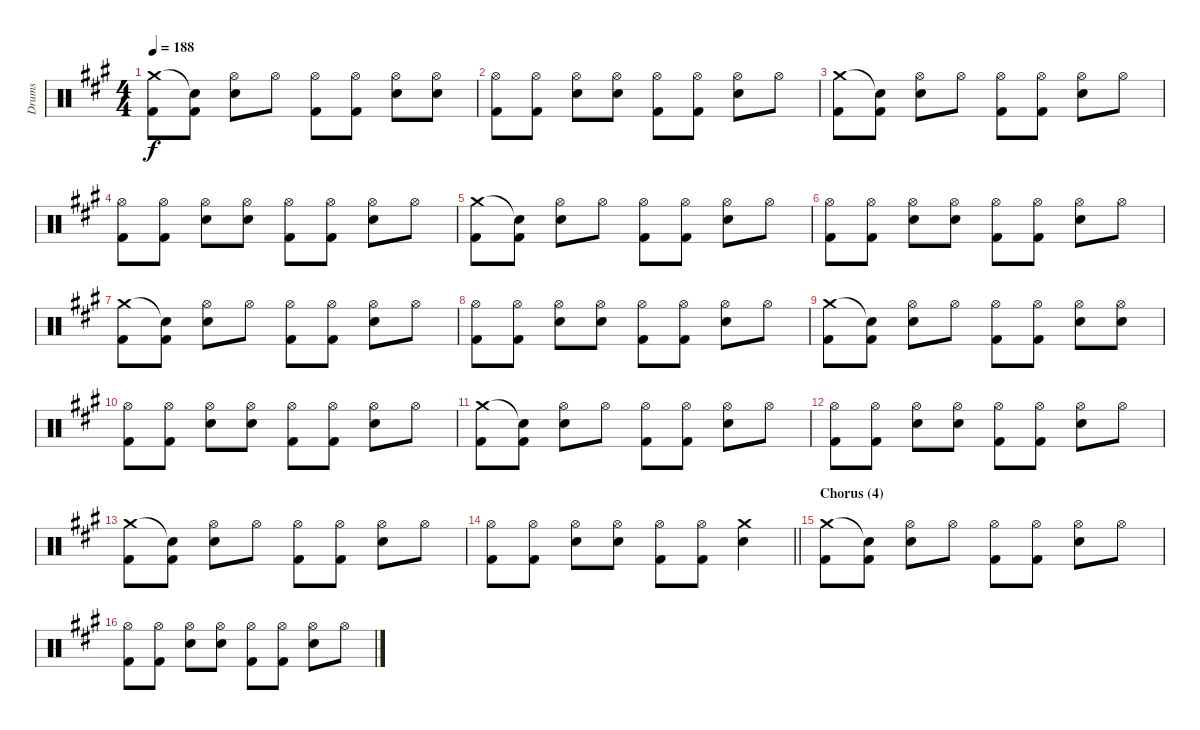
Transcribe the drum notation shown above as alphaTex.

\track ("Drums" "Drums") {instrument percussion}
\staff {score}
\articulation defaults
\ts (4 4)
\tempo 188
\clef neutral
\ks a
("Crash medium (hit)" "Kick (hit) 2").8{dy f} ("Snare (hit)"{t} "Kick (hit) 2").8 ("Hi-Hat (open)" "Electric Snare (hit)").8 "Hi-Hat (open)".8 ("Hi-Hat (open)" "Kick (hit) 2").8 ("Hi-Hat (open)" "Kick (hit) 2").8 ("Hi-Hat (open)" "Electric Snare (hit)").8 ("Hi-Hat (open)" "Electric Snare (hit)").8 |
("Hi-Hat (open)" "Kick (hit) 2").8 ("Hi-Hat (open)" "Kick (hit) 2").8 ("Hi-Hat (open)" "Electric Snare (hit)").8 ("Hi-Hat (open)" "Electric Snare (hit)").8 ("Hi-Hat (open)" "Kick (hit) 2").8 ("Hi-Hat (open)" "Kick (hit) 2").8 ("Hi-Hat (open)" "Electric Snare (hit)").8 "Hi-Hat (open)".8 |
("Crash medium (hit)" "Kick (hit) 2").8 ("Snare (hit)"{t} "Kick (hit) 2").8 ("Hi-Hat (open)" "Electric Snare (hit)").8 "Hi-Hat (open)".8 ("Hi-Hat (open)" "Kick (hit) 2").8 ("Hi-Hat (open)" "Kick (hit) 2").8 ("Hi-Hat (open)" "Electric Snare (hit)").8 "Hi-Hat (open)".8 |
("Hi-Hat (open)" "Kick (hit) 2").8 ("Hi-Hat (open)" "Kick (hit) 2").8 ("Hi-Hat (open)" "Electric Snare (hit)").8 ("Hi-Hat (open)" "Electric Snare (hit)").8 ("Hi-Hat (open)" "Kick (hit) 2").8 ("Hi-Hat (open)" "Kick (hit) 2").8 ("Hi-Hat (open)" "Electric Snare (hit)").8 "Hi-Hat (open)".8 |
("Crash medium (hit)" "Kick (hit) 2").8 ("Snare (hit)"{t} "Kick (hit) 2").8 ("Hi-Hat (open)" "Electric Snare (hit)").8 "Hi-Hat (open)".8 ("Hi-Hat (open)" "Kick (hit) 2").8 ("Hi-Hat (open)" "Kick (hit) 2").8 ("Hi-Hat (open)" "Electric Snare (hit)").8 "Hi-Hat (open)".8 |
("Hi-Hat (open)" "Kick (hit) 2").8 ("Hi-Hat (open)" "Kick (hit) 2").8 ("Hi-Hat (open)" "Electric Snare (hit)").8 ("Hi-Hat (open)" "Electric Snare (hit)").8 ("Hi-Hat (open)" "Kick (hit) 2").8 ("Hi-Hat (open)" "Kick (hit) 2").8 ("Hi-Hat (open)" "Electric Snare (hit)").8 "Hi-Hat (open)".8 |
("Crash medium (hit)" "Kick (hit) 2").8 ("Snare (hit)"{t} "Kick (hit) 2").8 ("Hi-Hat (open)" "Electric Snare (hit)").8 "Hi-Hat (open)".8 ("Hi-Hat (open)" "Kick (hit) 2").8 ("Hi-Hat (open)" "Kick (hit) 2").8 ("Hi-Hat (open)" "Electric Snare (hit)").8 "Hi-Hat (open)".8 |
("Hi-Hat (open)" "Kick (hit) 2").8 ("Hi-Hat (open)" "Kick (hit) 2").8 ("Hi-Hat (open)" "Electric Snare (hit)").8 ("Hi-Hat (open)" "Electric Snare (hit)").8 ("Hi-Hat (open)" "Kick (hit) 2").8 ("Hi-Hat (open)" "Kick (hit) 2").8 ("Hi-Hat (open)" "Electric Snare (hit)").8 "Hi-Hat (open)".8 |
("Crash medium (hit)" "Kick (hit) 2").8 ("Snare (hit)"{t} "Kick (hit) 2").8 ("Hi-Hat (open)" "Electric Snare (hit)").8 "Hi-Hat (open)".8 ("Hi-Hat (open)" "Kick (hit) 2").8 ("Hi-Hat (open)" "Kick (hit) 2").8 ("Hi-Hat (open)" "Electric Snare (hit)").8 ("Hi-Hat (open)" "Electric Snare (hit)").8 |
("Hi-Hat (open)" "Kick (hit) 2").8 ("Hi-Hat (open)" "Kick (hit) 2").8 ("Hi-Hat (open)" "Electric Snare (hit)").8 ("Hi-Hat (open)" "Electric Snare (hit)").8 ("Hi-Hat (open)" "Kick (hit) 2").8 ("Hi-Hat (open)" "Kick (hit) 2").8 ("Hi-Hat (open)" "Electric Snare (hit)").8 "Hi-Hat (open)".8 |
("Crash medium (hit)" "Kick (hit) 2").8 ("Snare (hit)"{t} "Kick (hit) 2").8 ("Hi-Hat (open)" "Electric Snare (hit)").8 "Hi-Hat (open)".8 ("Hi-Hat (open)" "Kick (hit) 2").8 ("Hi-Hat (open)" "Kick (hit) 2").8 ("Hi-Hat (open)" "Electric Snare (hit)").8 "Hi-Hat (open)".8 |
("Hi-Hat (open)" "Kick (hit) 2").8 ("Hi-Hat (open)" "Kick (hit) 2").8 ("Hi-Hat (open)" "Electric Snare (hit)").8 ("Hi-Hat (open)" "Electric Snare (hit)").8 ("Hi-Hat (open)" "Kick (hit) 2").8 ("Hi-Hat (open)" "Kick (hit) 2").8 ("Hi-Hat (open)" "Electric Snare (hit)").8 "Hi-Hat (open)".8 |
("Crash medium (hit)" "Kick (hit) 2").8 ("Snare (hit)"{t} "Kick (hit) 2").8 ("Hi-Hat (open)" "Electric Snare (hit)").8 "Hi-Hat (open)".8 ("Hi-Hat (open)" "Kick (hit) 2").8 ("Hi-Hat (open)" "Kick (hit) 2").8 ("Hi-Hat (open)" "Electric Snare (hit)").8 "Hi-Hat (open)".8 |
\barLineRight lightlight
("Hi-Hat (open)" "Kick (hit) 2").8 ("Hi-Hat (open)" "Kick (hit) 2").8 ("Hi-Hat (open)" "Electric Snare (hit)").8 ("Hi-Hat (open)" "Electric Snare (hit)").8 ("Hi-Hat (open)" "Kick (hit) 2").8 ("Hi-Hat (open)" "Kick (hit) 2").8 ("Crash medium (hit)" "Electric Snare (hit)").4 |
\section ("" "Chorus (4)")
("Crash medium (hit)" "Kick (hit) 2").8 ("Snare (hit)"{t} "Kick (hit) 2").8 ("Hi-Hat (open)" "Electric Snare (hit)").8 "Hi-Hat (open)".8 ("Hi-Hat (open)" "Kick (hit) 2").8 ("Hi-Hat (open)" "Kick (hit) 2").8 ("Hi-Hat (open)" "Electric Snare (hit)").8 "Hi-Hat (open)".8 |
("Hi-Hat (open)" "Kick (hit) 2").8 ("Hi-Hat (open)" "Kick (hit) 2").8 ("Hi-Hat (open)" "Electric Snare (hit)").8 ("Hi-Hat (open)" "Electric Snare (hit)").8 ("Hi-Hat (open)" "Kick (hit) 2").8 ("Hi-Hat (open)" "Kick (hit) 2").8 ("Hi-Hat (open)" "Electric Snare (hit)").8 "Hi-Hat (open)".8
